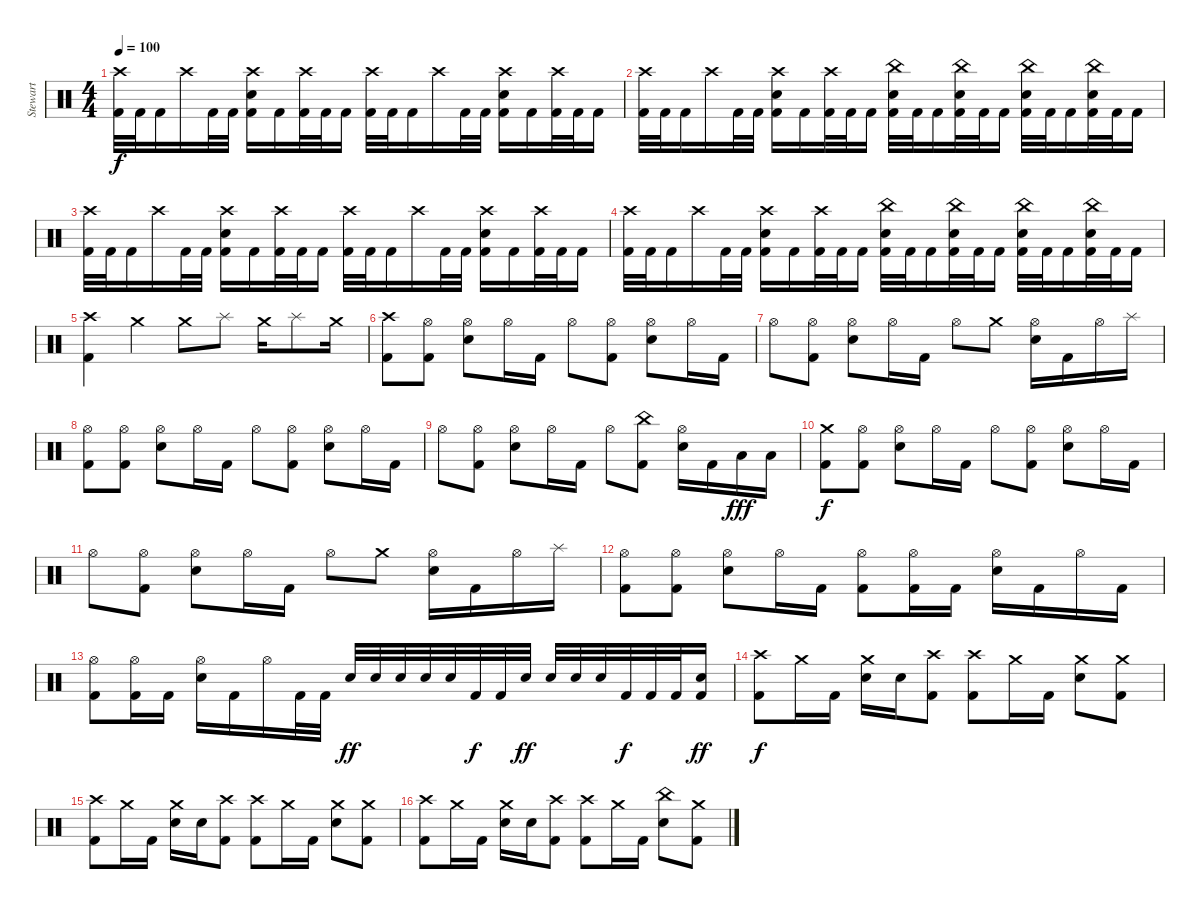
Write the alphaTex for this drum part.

\track ("Stewart" "Stewart") {instrument percussion}
\staff {score}
\articulation defaults
\ts (4 4)
\tempo 100
\clef neutral
\ks c
("Crash high (hit)" "Kick (hit) 2").32{dy f} "Kick (hit) 2".32 "Kick (hit) 2".16 "Crash high (hit)".16 "Kick (hit) 2".32 "Kick (hit) 2".32 ("Crash high (hit)" "Electric Snare (hit)" "Kick (hit) 2").16 "Kick (hit) 2".16 ("Crash high (hit)" "Kick (hit) 2").32 "Kick (hit) 2".32 "Kick (hit) 2".16 ("Crash high (hit)" "Kick (hit) 2").32 "Kick (hit) 2".32 "Kick (hit) 2".16 "Crash high (hit)".16 "Kick (hit) 2".32 "Kick (hit) 2".32 ("Crash high (hit)" "Electric Snare (hit)" "Kick (hit) 2").16 "Kick (hit) 2".16 ("Crash high (hit)" "Kick (hit) 2").32 "Kick (hit) 2".32 "Kick (hit) 2".16 |
("Crash high (hit)" "Kick (hit) 2").32 "Kick (hit) 2".32 "Kick (hit) 2".16 "Crash high (hit)".16 "Kick (hit) 2".32 "Kick (hit) 2".32 ("Crash high (hit)" "Electric Snare (hit)" "Kick (hit) 2").16 "Kick (hit) 2".16 ("Crash high (hit)" "Kick (hit) 2").32 "Kick (hit) 2".32 "Kick (hit) 2".16 ("China (hit)" "Electric Snare (hit)" "Kick (hit) 2").32 "Kick (hit) 2".32 "Kick (hit) 2".16 ("China (hit)" "Electric Snare (hit)" "Kick (hit) 2").32 "Kick (hit) 2".32 "Kick (hit) 2".16 ("China (hit)" "Electric Snare (hit)" "Kick (hit) 2").32 "Kick (hit) 2".32 "Kick (hit) 2".16 ("China (hit)" "Electric Snare (hit)" "Kick (hit) 2").32 "Kick (hit) 2".32 "Kick (hit) 2".16 |
("Crash high (hit)" "Kick (hit) 2").32 "Kick (hit) 2".32 "Kick (hit) 2".16 "Crash high (hit)".16 "Kick (hit) 2".32 "Kick (hit) 2".32 ("Crash high (hit)" "Electric Snare (hit)" "Kick (hit) 2").16 "Kick (hit) 2".16 ("Crash high (hit)" "Kick (hit) 2").32 "Kick (hit) 2".32 "Kick (hit) 2".16 ("Crash high (hit)" "Kick (hit) 2").32 "Kick (hit) 2".32 "Kick (hit) 2".16 "Crash high (hit)".16 "Kick (hit) 2".32 "Kick (hit) 2".32 ("Crash high (hit)" "Electric Snare (hit)" "Kick (hit) 2").16 "Kick (hit) 2".16 ("Crash high (hit)" "Kick (hit) 2").32 "Kick (hit) 2".32 "Kick (hit) 2".16 |
("Crash high (hit)" "Kick (hit) 2").32 "Kick (hit) 2".32 "Kick (hit) 2".16 "Crash high (hit)".16 "Kick (hit) 2".32 "Kick (hit) 2".32 ("Crash high (hit)" "Electric Snare (hit)" "Kick (hit) 2").16 "Kick (hit) 2".16 ("Crash high (hit)" "Kick (hit) 2").32 "Kick (hit) 2".32 "Kick (hit) 2".16 ("China (hit)" "Electric Snare (hit)" "Kick (hit) 2").32 "Kick (hit) 2".32 "Kick (hit) 2".16 ("China (hit)" "Electric Snare (hit)" "Kick (hit) 2").32 "Kick (hit) 2".32 "Kick (hit) 2".16 ("China (hit)" "Electric Snare (hit)" "Kick (hit) 2").32 "Kick (hit) 2".32 "Kick (hit) 2".16 ("China (hit)" "Electric Snare (hit)" "Kick (hit) 2").32 "Kick (hit) 2".32 "Kick (hit) 2".16 |
("Crash high (hit)" "Kick (hit) 2").4 "Crash medium (hit)".4 "Crash medium (hit)".8 "Splash (hit)".8 "Crash medium (hit)".16 "Splash (hit)".8 "Crash medium (hit)".16 |
("Crash high (hit)" "Kick (hit) 2").8 ("Hi-Hat (open)" "Kick (hit) 2").8 ("Hi-Hat (open)" "Electric Snare (hit)").8 "Hi-Hat (open)".16 "Kick (hit) 2".16 "Hi-Hat (open)".8 ("Hi-Hat (open)" "Kick (hit) 2").8 ("Hi-Hat (open)" "Electric Snare (hit)").8 "Hi-Hat (open)".16 "Kick (hit) 2".16 |
"Hi-Hat (open)".8 ("Hi-Hat (open)" "Kick (hit) 2").8 ("Hi-Hat (open)" "Electric Snare (hit)").8 "Hi-Hat (open)".16 "Kick (hit) 2".16 "Hi-Hat (open)".8 "Crash medium (hit)".8 ("Hi-Hat (open)" "Electric Snare (hit)").16 "Kick (hit) 2".16 "Hi-Hat (open)".16 "Splash (hit)".16 |
("Hi-Hat (open)" "Kick (hit) 2").8 ("Hi-Hat (open)" "Kick (hit) 2").8 ("Hi-Hat (open)" "Electric Snare (hit)").8 "Hi-Hat (open)".16 "Kick (hit) 2".16 "Hi-Hat (open)".8 ("Hi-Hat (open)" "Kick (hit) 2").8 ("Hi-Hat (open)" "Electric Snare (hit)").8 "Hi-Hat (open)".16 "Kick (hit) 2".16 |
"Hi-Hat (open)".8 ("Hi-Hat (open)" "Kick (hit) 2").8 ("Hi-Hat (open)" "Electric Snare (hit)").8 "Hi-Hat (open)".16 "Kick (hit) 2".16 "Hi-Hat (open)".8 ("China (hit)" "Kick (hit) 2").8 ("Hi-Hat (open)" "Electric Snare (hit)").16 "Kick (hit) 2".16 "Low Tom (hit)".16{dy fff} "Low Tom (hit)".16 |
("Crash medium (hit)" "Kick (hit) 2").8{dy f} ("Hi-Hat (open)" "Kick (hit) 2").8 ("Hi-Hat (open)" "Electric Snare (hit)").8 "Hi-Hat (open)".16 "Kick (hit) 2".16 "Hi-Hat (open)".8 ("Hi-Hat (open)" "Kick (hit) 2").8 ("Hi-Hat (open)" "Electric Snare (hit)").8 "Hi-Hat (open)".16 "Kick (hit) 2".16 |
"Hi-Hat (open)".8 ("Hi-Hat (open)" "Kick (hit) 2").8 ("Hi-Hat (open)" "Electric Snare (hit)").8 "Hi-Hat (open)".16 "Kick (hit) 2".16 "Hi-Hat (open)".8 "Crash medium (hit)".8 ("Hi-Hat (open)" "Electric Snare (hit)").16 "Kick (hit) 2".16 "Hi-Hat (open)".16 "Splash (hit)".16 |
("Hi-Hat (open)" "Kick (hit) 2").8 ("Hi-Hat (open)" "Kick (hit) 2").8 ("Hi-Hat (open)" "Electric Snare (hit)").8 "Hi-Hat (open)".16 "Kick (hit) 2".16 ("Hi-Hat (open)" "Kick (hit) 2").8 ("Hi-Hat (open)" "Kick (hit) 2").16 "Kick (hit) 2".16 ("Hi-Hat (open)" "Electric Snare (hit)").16 "Kick (hit) 2".16 "Hi-Hat (open)".16 "Kick (hit) 2".16 |
("Hi-Hat (open)" "Kick (hit) 2").8 ("Hi-Hat (open)" "Kick (hit) 2").16 "Kick (hit) 2".16 ("Hi-Hat (open)" "Electric Snare (hit)").16 "Kick (hit) 2".16 "Hi-Hat (open)".16 "Kick (hit) 2".32 "Kick (hit) 2".32 "Electric Snare (hit)".32{dy ff} "Electric Snare (hit)".32 "Electric Snare (hit)".32 "Electric Snare (hit)".32 "Electric Snare (hit)".32 "Kick (hit) 2".32{dy f} "Kick (hit) 2".32 "Electric Snare (hit)".32{dy ff} "Electric Snare (hit)".32 "Electric Snare (hit)".32 "Electric Snare (hit)".32 "Kick (hit) 2".32{dy f} "Kick (hit) 2".32 "Kick (hit) 2".32 ("Electric Snare (hit)" "Kick (hit) 2").16{dy ff} |
("Crash high (hit)" "Kick (hit) 2").8{dy f} "Crash medium (hit)".16 "Kick (hit) 2".16 ("Crash medium (hit)" "Electric Snare (hit)").16 "Electric Snare (hit)".16 ("Crash high (hit)" "Kick (hit) 2").8 ("Crash high (hit)" "Kick (hit) 2").8 "Crash medium (hit)".16 "Kick (hit) 2".16 ("Crash medium (hit)" "Electric Snare (hit)").8 ("Crash medium (hit)" "Kick (hit) 2").8 |
("Crash high (hit)" "Kick (hit) 2").8 "Crash medium (hit)".16 "Kick (hit) 2".16 ("Crash medium (hit)" "Electric Snare (hit)").16 "Electric Snare (hit)".16 ("Crash high (hit)" "Kick (hit) 2").8 ("Crash high (hit)" "Kick (hit) 2").8 "Crash medium (hit)".16 "Kick (hit) 2".16 ("Crash medium (hit)" "Electric Snare (hit)").8 ("Crash medium (hit)" "Kick (hit) 2").8 |
("Crash high (hit)" "Kick (hit) 2").8 "Crash medium (hit)".16 "Kick (hit) 2".16 ("Crash medium (hit)" "Electric Snare (hit)").16 "Electric Snare (hit)".16 ("Crash high (hit)" "Kick (hit) 2").8 ("Crash high (hit)" "Kick (hit) 2").8 "Crash medium (hit)".16 "Kick (hit) 2".16 ("China (hit)" "Electric Snare (hit)").8 ("Crash medium (hit)" "Kick (hit) 2").8
